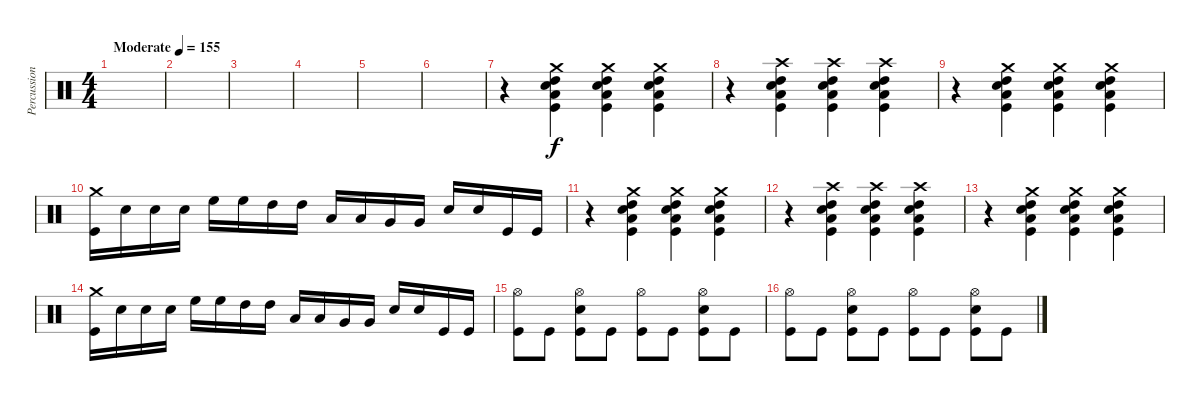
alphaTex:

\track ("Percussion" "Percussion") {instrument percussion}
\staff {score}
\articulation defaults
\ts (4 4)
\tempo (155 "Moderate")
\clef neutral
\ks c
|
|
|
|
|
|
r.4 ("Crash medium (hit)" "Snare (hit) 2" "High Tom (hit)" "Low Floor Tom (hit)" "Kick (hit)").4 ("Crash medium (hit)" "Snare (hit) 2" "High Tom (hit)" "Low Floor Tom (hit)" "Kick (hit)").4 ("Crash medium (hit)" "Snare (hit) 2" "High Tom (hit)" "Low Floor Tom (hit)" "Kick (hit)").4 |
r.4 ("Crash high (hit)" "Snare (hit) 2" "High Tom (hit)" "Low Floor Tom (hit)" "Kick (hit)").4 ("Crash high (hit)" "Snare (hit) 2" "High Tom (hit)" "Low Floor Tom (hit)" "Kick (hit)").4 ("Crash high (hit)" "Snare (hit) 2" "High Tom (hit)" "Low Floor Tom (hit)" "Kick (hit)").4 |
r.4 ("Crash medium (hit)" "Snare (hit) 2" "High Tom (hit)" "Low Floor Tom (hit)" "Kick (hit)").4 ("Crash medium (hit)" "Snare (hit) 2" "High Tom (hit)" "Low Floor Tom (hit)" "Kick (hit)").4 ("Crash medium (hit)" "Snare (hit) 2" "High Tom (hit)" "Low Floor Tom (hit)" "Kick (hit)").4 |
("Crash medium (hit)" "Kick (hit)").16 "Snare (hit) 2".16 "Snare (hit) 2".16 "Snare (hit) 2".16 "High Floor Tom (hit)".16 "High Floor Tom (hit)".16 "High Tom (hit)".16 "High Tom (hit)".16 "Low Tom (hit)".16 "Low Tom (hit)".16 "Very Low Tom (hit)".16 "Very Low Tom (hit)".16 "Snare (hit) 2".16 "Snare (hit) 2".16 "Kick (hit)".16 "Kick (hit)".16 |
r.4 ("Crash medium (hit)" "Snare (hit) 2" "High Tom (hit)" "Low Floor Tom (hit)" "Kick (hit)").4 ("Crash medium (hit)" "Snare (hit) 2" "High Tom (hit)" "Low Floor Tom (hit)" "Kick (hit)").4 ("Crash medium (hit)" "Snare (hit) 2" "High Tom (hit)" "Low Floor Tom (hit)" "Kick (hit)").4 |
r.4 ("Crash high (hit)" "Snare (hit) 2" "High Tom (hit)" "Low Floor Tom (hit)" "Kick (hit)").4 ("Crash high (hit)" "Snare (hit) 2" "High Tom (hit)" "Low Floor Tom (hit)" "Kick (hit)").4 ("Crash high (hit)" "Snare (hit) 2" "High Tom (hit)" "Low Floor Tom (hit)" "Kick (hit)").4 |
r.4 ("Crash medium (hit)" "Snare (hit) 2" "High Tom (hit)" "Low Floor Tom (hit)" "Kick (hit)").4 ("Crash medium (hit)" "Snare (hit) 2" "High Tom (hit)" "Low Floor Tom (hit)" "Kick (hit)").4 ("Crash medium (hit)" "Snare (hit) 2" "High Tom (hit)" "Low Floor Tom (hit)" "Kick (hit)").4 |
("Crash medium (hit)" "Kick (hit)").16 "Snare (hit) 2".16 "Snare (hit) 2".16 "Snare (hit) 2".16 "High Floor Tom (hit)".16 "High Floor Tom (hit)".16 "High Tom (hit)".16 "High Tom (hit)".16 "Low Tom (hit)".16 "Low Tom (hit)".16 "Very Low Tom (hit)".16 "Very Low Tom (hit)".16 "Snare (hit) 2".16 "Snare (hit) 2".16 "Kick (hit)".16 "Kick (hit)".16 |
("Hi-Hat (open)" "Kick (hit)").8 "Kick (hit)".8 ("Hi-Hat (open)" "Snare (hit) 2" "Kick (hit)").8 "Kick (hit)".8 ("Hi-Hat (open)" "Kick (hit)").8 "Kick (hit)".8 ("Hi-Hat (open)" "Snare (hit) 2" "Kick (hit)").8 "Kick (hit)".8 |
("Hi-Hat (open)" "Kick (hit)").8 "Kick (hit)".8 ("Hi-Hat (open)" "Snare (hit) 2" "Kick (hit)").8 "Kick (hit)".8 ("Hi-Hat (open)" "Kick (hit)").8 "Kick (hit)".8 ("Hi-Hat (open)" "Snare (hit) 2" "Kick (hit)").8 "Kick (hit)".8
